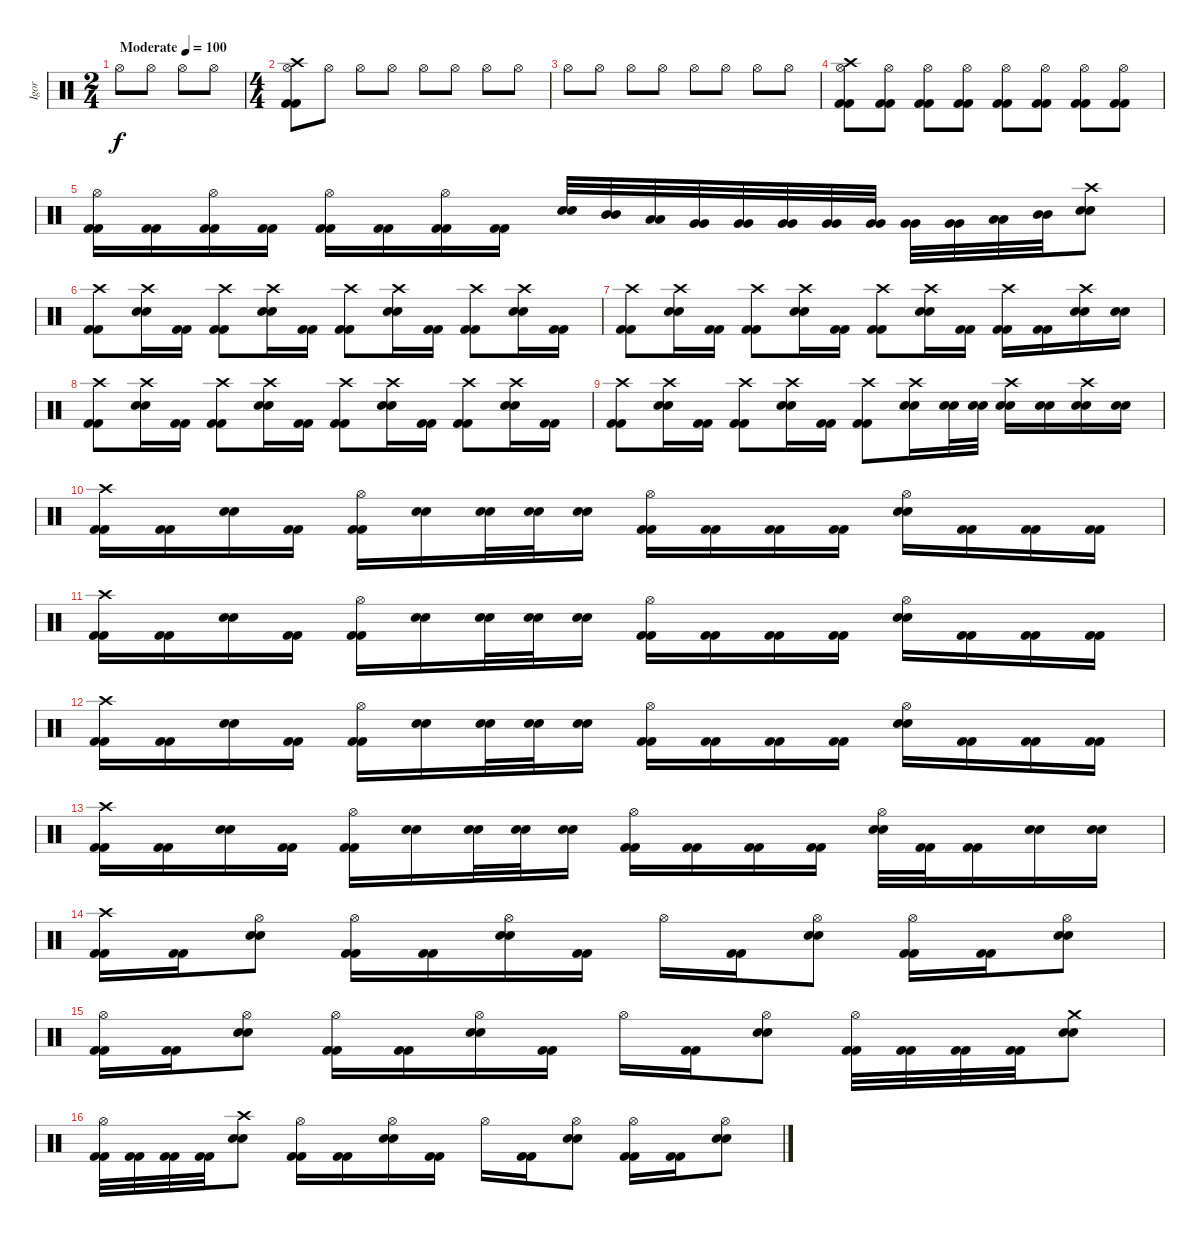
\track ("Igor" "Igor") {instrument percussion}
\staff {score}
\articulation defaults
\ts (2 4)
\tempo (100 "Moderate")
\clef neutral
\ks c "Hi-Hat (open)".8{dy f} "Hi-Hat (open)".8 "Hi-Hat (open)".8 "Hi-Hat (open)".8
|
\ts (4 4)
("Hi-Hat (open)" "Crash high (hit)" "Kick (hit) 2" "Kick (hit) 2").8 "Hi-Hat (open)".8 "Hi-Hat (open)".8 "Hi-Hat (open)".8 "Hi-Hat (open)".8 "Hi-Hat (open)".8 "Hi-Hat (open)".8 "Hi-Hat (open)".8 |
"Hi-Hat (open)".8 "Hi-Hat (open)".8 "Hi-Hat (open)".8 "Hi-Hat (open)".8 "Hi-Hat (open)".8 "Hi-Hat (open)".8 "Hi-Hat (open)".8 "Hi-Hat (open)".8 |
("Hi-Hat (open)" "Crash high (hit)" "Kick (hit) 2" "Kick (hit) 2").8 ("Hi-Hat (open)" "Kick (hit) 2" "Kick (hit) 2").8 ("Hi-Hat (open)" "Kick (hit) 2" "Kick (hit) 2").8 ("Hi-Hat (open)" "Kick (hit) 2" "Kick (hit) 2").8 ("Hi-Hat (open)" "Kick (hit) 2" "Kick (hit) 2").8 ("Hi-Hat (open)" "Kick (hit) 2" "Kick (hit) 2").8 ("Hi-Hat (open)" "Kick (hit) 2" "Kick (hit) 2").8 ("Hi-Hat (open)" "Kick (hit) 2" "Kick (hit) 2").8 |
("Hi-Hat (open)" "Kick (hit) 2" "Kick (hit) 2").16 ("Kick (hit) 2" "Kick (hit) 2").16 ("Hi-Hat (open)" "Kick (hit) 2" "Kick (hit) 2").16 ("Kick (hit) 2" "Kick (hit) 2").16 ("Hi-Hat (open)" "Kick (hit) 2" "Kick (hit) 2").16 ("Kick (hit) 2" "Kick (hit) 2").16 ("Hi-Hat (open)" "Kick (hit) 2" "Kick (hit) 2").16 ("Kick (hit) 2" "Kick (hit) 2").16 ("Electric Snare (hit)" "Electric Snare (hit)").32 ("Mid Tom (hit)" "Mid Tom (hit)").32 ("Low Tom (hit)" "Low Tom (hit)").32 ("Very Low Tom (hit)" "Very Low Tom (hit)").32 ("Very Low Tom (hit)" "Very Low Tom (hit)").32 ("Very Low Tom (hit)" "Very Low Tom (hit)").32 ("Very Low Tom (hit)" "Very Low Tom (hit)").32 ("Very Low Tom (hit)" "Very Low Tom (hit)").32 ("Very Low Tom (hit)" "Very Low Tom (hit)").32 ("Very Low Tom (hit)" "Very Low Tom (hit)").32 ("Low Tom (hit)" "Low Tom (hit)").32 ("Mid Tom (hit)" "Mid Tom (hit)").32 ("Crash high (hit)" "Electric Snare (hit)" "Electric Snare (hit)").8 |
("Crash high (hit)" "Kick (hit) 2" "Kick (hit) 2").8 ("Crash high (hit)" "Electric Snare (hit)" "Electric Snare (hit)").16 ("Kick (hit) 2" "Kick (hit) 2").16 ("Crash high (hit)" "Kick (hit) 2" "Kick (hit) 2").8 ("Crash high (hit)" "Electric Snare (hit)" "Electric Snare (hit)").16 ("Kick (hit) 2" "Kick (hit) 2").16 ("Crash high (hit)" "Kick (hit) 2" "Kick (hit) 2").8 ("Crash high (hit)" "Electric Snare (hit)" "Electric Snare (hit)").16 ("Kick (hit) 2" "Kick (hit) 2").16 ("Crash high (hit)" "Kick (hit) 2" "Kick (hit) 2").8 ("Crash high (hit)" "Electric Snare (hit)" "Electric Snare (hit)").16 ("Kick (hit) 2" "Kick (hit) 2").16 |
("Crash high (hit)" "Kick (hit) 2" "Kick (hit) 2").8 ("Crash high (hit)" "Electric Snare (hit)" "Electric Snare (hit)").16 ("Kick (hit) 2" "Kick (hit) 2").16 ("Crash high (hit)" "Kick (hit) 2" "Kick (hit) 2").8 ("Crash high (hit)" "Electric Snare (hit)" "Electric Snare (hit)").16 ("Kick (hit) 2" "Kick (hit) 2").16 ("Crash high (hit)" "Kick (hit) 2" "Kick (hit) 2").8 ("Crash high (hit)" "Electric Snare (hit)" "Electric Snare (hit)").16 ("Kick (hit) 2" "Kick (hit) 2").16 ("Crash high (hit)" "Kick (hit) 2" "Kick (hit) 2").16 ("Kick (hit) 2" "Kick (hit) 2").16 ("Crash high (hit)" "Electric Snare (hit)" "Electric Snare (hit)").16 ("Electric Snare (hit)" "Electric Snare (hit)").16 |
("Crash high (hit)" "Kick (hit) 2" "Kick (hit) 2").8 ("Crash high (hit)" "Electric Snare (hit)" "Electric Snare (hit)").16 ("Kick (hit) 2" "Kick (hit) 2").16 ("Crash high (hit)" "Kick (hit) 2" "Kick (hit) 2").8 ("Crash high (hit)" "Electric Snare (hit)" "Electric Snare (hit)").16 ("Kick (hit) 2" "Kick (hit) 2").16 ("Crash high (hit)" "Kick (hit) 2" "Kick (hit) 2").8 ("Crash high (hit)" "Electric Snare (hit)" "Electric Snare (hit)").16 ("Kick (hit) 2" "Kick (hit) 2").16 ("Crash high (hit)" "Kick (hit) 2" "Kick (hit) 2").8 ("Crash high (hit)" "Electric Snare (hit)" "Electric Snare (hit)").16 ("Kick (hit) 2" "Kick (hit) 2").16 |
("Crash high (hit)" "Kick (hit) 2" "Kick (hit) 2").8 ("Crash high (hit)" "Electric Snare (hit)" "Electric Snare (hit)").16 ("Kick (hit) 2" "Kick (hit) 2").16 ("Crash high (hit)" "Kick (hit) 2" "Kick (hit) 2").8 ("Crash high (hit)" "Electric Snare (hit)" "Electric Snare (hit)").16 ("Kick (hit) 2" "Kick (hit) 2").16 ("Crash high (hit)" "Kick (hit) 2" "Kick (hit) 2").8 ("Crash high (hit)" "Electric Snare (hit)" "Electric Snare (hit)").16 ("Electric Snare (hit)" "Electric Snare (hit)").32 ("Electric Snare (hit)" "Electric Snare (hit)").32 ("Crash high (hit)" "Electric Snare (hit)" "Electric Snare (hit)").16 ("Electric Snare (hit)" "Electric Snare (hit)").16 ("Crash high (hit)" "Electric Snare (hit)" "Electric Snare (hit)").16 ("Electric Snare (hit)" "Electric Snare (hit)").16 |
("Crash high (hit)" "Kick (hit) 2" "Kick (hit) 2").16 ("Kick (hit) 2" "Kick (hit) 2").16 ("Electric Snare (hit)" "Electric Snare (hit)").16 ("Kick (hit) 2" "Kick (hit) 2").16 ("Hi-Hat (open)" "Kick (hit) 2" "Kick (hit) 2").16 ("Electric Snare (hit)" "Electric Snare (hit)").16 ("Electric Snare (hit)" "Electric Snare (hit)").32 ("Electric Snare (hit)" "Electric Snare (hit)").32 ("Electric Snare (hit)" "Electric Snare (hit)").16 ("Hi-Hat (open)" "Kick (hit) 2" "Kick (hit) 2").16 ("Kick (hit) 2" "Kick (hit) 2").16 ("Kick (hit) 2" "Kick (hit) 2").16 ("Kick (hit) 2" "Kick (hit) 2").16 ("Hi-Hat (open)" "Electric Snare (hit)" "Electric Snare (hit)").16 ("Kick (hit) 2" "Kick (hit) 2").16 ("Kick (hit) 2" "Kick (hit) 2").16 ("Kick (hit) 2" "Kick (hit) 2").16 |
("Crash high (hit)" "Kick (hit) 2" "Kick (hit) 2").16 ("Kick (hit) 2" "Kick (hit) 2").16 ("Electric Snare (hit)" "Electric Snare (hit)").16 ("Kick (hit) 2" "Kick (hit) 2").16 ("Hi-Hat (open)" "Kick (hit) 2" "Kick (hit) 2").16 ("Electric Snare (hit)" "Electric Snare (hit)").16 ("Electric Snare (hit)" "Electric Snare (hit)").32 ("Electric Snare (hit)" "Electric Snare (hit)").32 ("Electric Snare (hit)" "Electric Snare (hit)").16 ("Hi-Hat (open)" "Kick (hit) 2" "Kick (hit) 2").16 ("Kick (hit) 2" "Kick (hit) 2").16 ("Kick (hit) 2" "Kick (hit) 2").16 ("Kick (hit) 2" "Kick (hit) 2").16 ("Hi-Hat (open)" "Electric Snare (hit)" "Electric Snare (hit)").16 ("Kick (hit) 2" "Kick (hit) 2").16 ("Kick (hit) 2" "Kick (hit) 2").16 ("Kick (hit) 2" "Kick (hit) 2").16 |
("Crash high (hit)" "Kick (hit) 2" "Kick (hit) 2").16 ("Kick (hit) 2" "Kick (hit) 2").16 ("Electric Snare (hit)" "Electric Snare (hit)").16 ("Kick (hit) 2" "Kick (hit) 2").16 ("Hi-Hat (open)" "Kick (hit) 2" "Kick (hit) 2").16 ("Electric Snare (hit)" "Electric Snare (hit)").16 ("Electric Snare (hit)" "Electric Snare (hit)").32 ("Electric Snare (hit)" "Electric Snare (hit)").32 ("Electric Snare (hit)" "Electric Snare (hit)").16 ("Hi-Hat (open)" "Kick (hit) 2" "Kick (hit) 2").16 ("Kick (hit) 2" "Kick (hit) 2").16 ("Kick (hit) 2" "Kick (hit) 2").16 ("Kick (hit) 2" "Kick (hit) 2").16 ("Hi-Hat (open)" "Electric Snare (hit)" "Electric Snare (hit)").16 ("Kick (hit) 2" "Kick (hit) 2").16 ("Kick (hit) 2" "Kick (hit) 2").16 ("Kick (hit) 2" "Kick (hit) 2").16 |
("Crash high (hit)" "Kick (hit) 2" "Kick (hit) 2").16 ("Kick (hit) 2" "Kick (hit) 2").16 ("Electric Snare (hit)" "Electric Snare (hit)").16 ("Kick (hit) 2" "Kick (hit) 2").16 ("Hi-Hat (open)" "Kick (hit) 2" "Kick (hit) 2").16 ("Electric Snare (hit)" "Electric Snare (hit)").16 ("Electric Snare (hit)" "Electric Snare (hit)").32 ("Electric Snare (hit)" "Electric Snare (hit)").32 ("Electric Snare (hit)" "Electric Snare (hit)").16 ("Hi-Hat (open)" "Kick (hit) 2" "Kick (hit) 2").16 ("Kick (hit) 2" "Kick (hit) 2").16 ("Kick (hit) 2" "Kick (hit) 2").16 ("Kick (hit) 2" "Kick (hit) 2").16 ("Hi-Hat (open)" "Electric Snare (hit)" "Electric Snare (hit)").32 ("Kick (hit) 2" "Kick (hit) 2").32 ("Kick (hit) 2" "Kick (hit) 2").16 ("Electric Snare (hit)" "Electric Snare (hit)").16 ("Electric Snare (hit)" "Electric Snare (hit)").16 |
("Crash high (hit)" "Kick (hit) 2" "Kick (hit) 2").16 ("Kick (hit) 2" "Kick (hit) 2").16 ("Hi-Hat (open)" "Electric Snare (hit)" "Electric Snare (hit)").8 ("Hi-Hat (open)" "Kick (hit) 2" "Kick (hit) 2").16 ("Kick (hit) 2" "Kick (hit) 2").16 ("Hi-Hat (open)" "Electric Snare (hit)" "Electric Snare (hit)").16 ("Kick (hit) 2" "Kick (hit) 2").16 "Hi-Hat (open)".16 ("Kick (hit) 2" "Kick (hit) 2").16 ("Hi-Hat (open)" "Electric Snare (hit)" "Electric Snare (hit)").8 ("Hi-Hat (open)" "Kick (hit) 2" "Kick (hit) 2").16 ("Kick (hit) 2" "Kick (hit) 2").16 ("Hi-Hat (open)" "Electric Snare (hit)" "Electric Snare (hit)").8 |
("Hi-Hat (open)" "Kick (hit) 2" "Kick (hit) 2").16 ("Kick (hit) 2" "Kick (hit) 2").16 ("Hi-Hat (open)" "Electric Snare (hit)" "Electric Snare (hit)").8 ("Hi-Hat (open)" "Kick (hit) 2" "Kick (hit) 2").16 ("Kick (hit) 2" "Kick (hit) 2").16 ("Hi-Hat (open)" "Electric Snare (hit)" "Electric Snare (hit)").16 ("Kick (hit) 2" "Kick (hit) 2").16 "Hi-Hat (open)".16 ("Kick (hit) 2" "Kick (hit) 2").16 ("Hi-Hat (open)" "Electric Snare (hit)" "Electric Snare (hit)").8 ("Hi-Hat (open)" "Kick (hit) 2" "Kick (hit) 2").32 ("Kick (hit) 2" "Kick (hit) 2").32 ("Kick (hit) 2" "Kick (hit) 2").32 ("Kick (hit) 2" "Kick (hit) 2").32 ("Crash medium (hit)" "Electric Snare (hit)" "Electric Snare (hit)").8 |
("Hi-Hat (open)" "Kick (hit) 2" "Kick (hit) 2").32 ("Kick (hit) 2" "Kick (hit) 2").32 ("Kick (hit) 2" "Kick (hit) 2").32 ("Kick (hit) 2" "Kick (hit) 2").32 ("Crash high (hit)" "Electric Snare (hit)" "Electric Snare (hit)").8 ("Hi-Hat (open)" "Kick (hit) 2" "Kick (hit) 2").16 ("Kick (hit) 2" "Kick (hit) 2").16 ("Hi-Hat (open)" "Electric Snare (hit)" "Electric Snare (hit)").16 ("Kick (hit) 2" "Kick (hit) 2").16 "Hi-Hat (open)".16 ("Kick (hit) 2" "Kick (hit) 2").16 ("Hi-Hat (open)" "Electric Snare (hit)" "Electric Snare (hit)").8 ("Hi-Hat (open)" "Kick (hit) 2" "Kick (hit) 2").16 ("Kick (hit) 2" "Kick (hit) 2").16 ("Hi-Hat (open)" "Electric Snare (hit)" "Electric Snare (hit)").8
